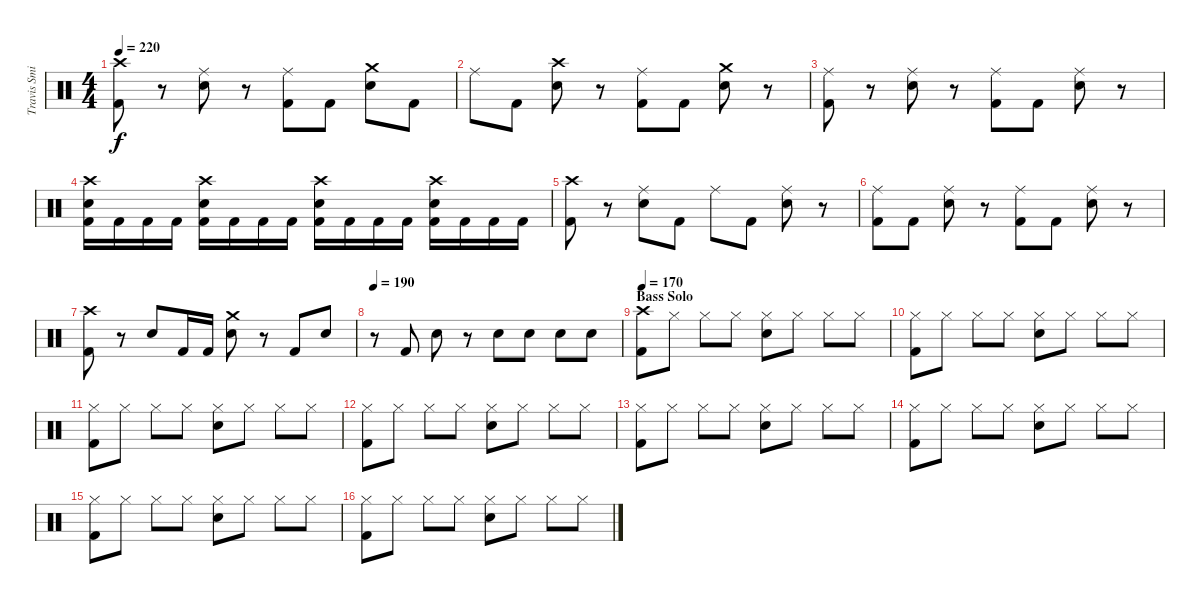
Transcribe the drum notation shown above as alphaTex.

\track ("Travis Smith" "Travis Smi") {instrument percussion}
\staff {score}
\articulation defaults
\ts (4 4)
\tempo 220
\clef neutral
\ks c
("Crash high (hit)" "Kick (hit) 2").8{dy f} r.8 ("Ride (middle)" "Electric Snare (hit)").8 r.8 ("Ride (middle)" "Kick (hit) 2").8 "Kick (hit) 2".8 ("Crash medium (hit)" "Electric Snare (hit)").8 "Kick (hit) 2".8 |
"Ride (middle)".8 "Kick (hit) 2".8 ("Crash high (hit)" "Electric Snare (hit)").8 r.8 ("Ride (middle)" "Kick (hit) 2").8 "Kick (hit) 2".8 ("Crash medium (hit)" "Electric Snare (hit)").8 r.8 |
("Ride (middle)" "Kick (hit) 2").8 r.8 ("Ride (middle)" "Electric Snare (hit)").8 r.8 ("Ride (middle)" "Kick (hit) 2").8 "Kick (hit) 2".8 ("Ride (middle)" "Electric Snare (hit)").8 r.8 |
("Crash high (hit)" "Electric Snare (hit)" "Kick (hit) 2").16 "Kick (hit) 2".16 "Kick (hit) 2".16 "Kick (hit) 2".16 ("Crash high (hit)" "Electric Snare (hit)" "Kick (hit) 2").16 "Kick (hit) 2".16 "Kick (hit) 2".16 "Kick (hit) 2".16 ("Crash high (hit)" "Electric Snare (hit)" "Kick (hit) 2").16 "Kick (hit) 2".16 "Kick (hit) 2".16 "Kick (hit) 2".16 ("Crash high (hit)" "Electric Snare (hit)" "Kick (hit) 2").16 "Kick (hit) 2".16 "Kick (hit) 2".16 "Kick (hit) 2".16 |
("Crash high (hit)" "Kick (hit) 2").8 r.8 ("Ride (middle)" "Electric Snare (hit)").8 "Kick (hit) 2".8 "Ride (middle)".8 "Kick (hit) 2".8 ("Ride (middle)" "Electric Snare (hit)").8 r.8 |
("Ride (middle)" "Kick (hit) 2").8 "Kick (hit) 2".8 ("Ride (middle)" "Electric Snare (hit)").8 r.8 ("Ride (middle)" "Kick (hit) 2").8 "Kick (hit) 2".8 ("Ride (middle)" "Electric Snare (hit)").8 r.8 |
("Crash high (hit)" "Kick (hit) 2").8 r.8 "Electric Snare (hit)".8 "Kick (hit) 2".16 "Kick (hit) 2".16 ("Crash medium (hit)" "Electric Snare (hit)").8 r.8 "Kick (hit) 2".8 "Electric Snare (hit)".8 |
\tempo 190
r.8 "Kick (hit) 2".8 "Electric Snare (hit)".8 r.8 "Electric Snare (hit)".8 "Electric Snare (hit)".8 "Electric Snare (hit)".8 "Electric Snare (hit)".8 |
\section ("" "Bass Solo")
\tempo 170
("Crash high (hit)" "Kick (hit) 2").8 "Hi-Hat (closed)".8 "Hi-Hat (closed)".8 "Hi-Hat (closed)".8 ("Hi-Hat (closed)" "Electric Snare (hit)").8 "Hi-Hat (closed)".8 "Hi-Hat (closed)".8 "Hi-Hat (closed)".8 |
("Hi-Hat (closed)" "Kick (hit) 2").8 "Hi-Hat (closed)".8 "Hi-Hat (closed)".8 "Hi-Hat (closed)".8 ("Hi-Hat (closed)" "Electric Snare (hit)").8 "Hi-Hat (closed)".8 "Hi-Hat (closed)".8 "Hi-Hat (closed)".8 |
("Hi-Hat (closed)" "Kick (hit) 2").8 "Hi-Hat (closed)".8 "Hi-Hat (closed)".8 "Hi-Hat (closed)".8 ("Hi-Hat (closed)" "Electric Snare (hit)").8 "Hi-Hat (closed)".8 "Hi-Hat (closed)".8 "Hi-Hat (closed)".8 |
("Hi-Hat (closed)" "Kick (hit) 2").8 "Hi-Hat (closed)".8 "Hi-Hat (closed)".8 "Hi-Hat (closed)".8 ("Hi-Hat (closed)" "Electric Snare (hit)").8 "Hi-Hat (closed)".8 "Hi-Hat (closed)".8 "Hi-Hat (closed)".8 |
("Hi-Hat (closed)" "Kick (hit) 2").8 "Hi-Hat (closed)".8 "Hi-Hat (closed)".8 "Hi-Hat (closed)".8 ("Hi-Hat (closed)" "Electric Snare (hit)").8 "Hi-Hat (closed)".8 "Hi-Hat (closed)".8 "Hi-Hat (closed)".8 |
("Hi-Hat (closed)" "Kick (hit) 2").8 "Hi-Hat (closed)".8 "Hi-Hat (closed)".8 "Hi-Hat (closed)".8 ("Hi-Hat (closed)" "Electric Snare (hit)").8 "Hi-Hat (closed)".8 "Hi-Hat (closed)".8 "Hi-Hat (closed)".8 |
("Hi-Hat (closed)" "Kick (hit) 2").8 "Hi-Hat (closed)".8 "Hi-Hat (closed)".8 "Hi-Hat (closed)".8 ("Hi-Hat (closed)" "Electric Snare (hit)").8 "Hi-Hat (closed)".8 "Hi-Hat (closed)".8 "Hi-Hat (closed)".8 |
("Hi-Hat (closed)" "Kick (hit) 2").8 "Hi-Hat (closed)".8 "Hi-Hat (closed)".8 "Hi-Hat (closed)".8 ("Hi-Hat (closed)" "Electric Snare (hit)").8 "Hi-Hat (closed)".8 "Hi-Hat (closed)".8 "Hi-Hat (closed)".8
